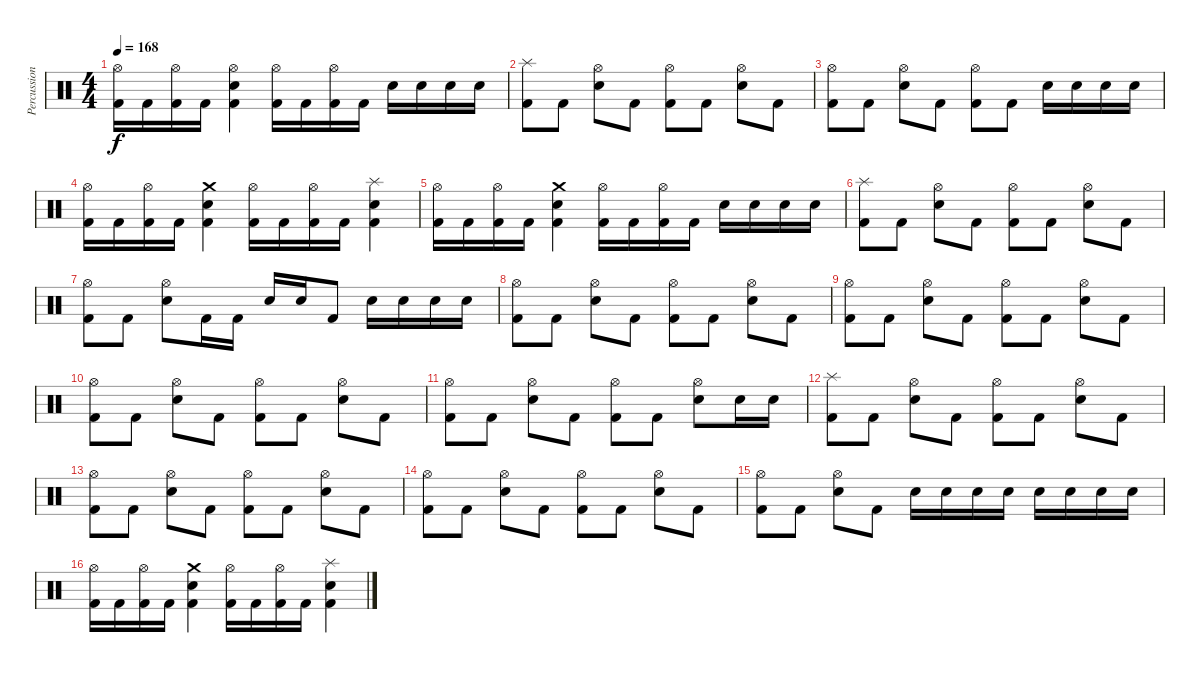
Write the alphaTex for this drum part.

\track ("Percussion" "Percussion") {instrument percussion}
\staff {score}
\articulation defaults
\ts (4 4)
\tempo 168
\clef neutral
\ks c
("Hi-Hat (open)" "Kick (hit) 2").16{dy f} "Kick (hit) 2".16 ("Hi-Hat (open)" "Kick (hit) 2").16 "Kick (hit) 2".16 ("Hi-Hat (open)" "Snare (hit) 2" "Kick (hit) 2").4 ("Hi-Hat (open)" "Kick (hit) 2").16 "Kick (hit) 2".16 ("Hi-Hat (open)" "Kick (hit) 2").16 "Kick (hit) 2".16 "Snare (hit) 2".16 "Snare (hit) 2".16 "Snare (hit) 2".16 "Snare (hit) 2".16 |
("Splash (hit)" "Kick (hit) 2").8 "Kick (hit) 2".8 ("Hi-Hat (open)" "Snare (hit) 2").8 "Kick (hit) 2".8 ("Hi-Hat (open)" "Kick (hit) 2").8 "Kick (hit) 2".8 ("Hi-Hat (open)" "Snare (hit) 2").8 "Kick (hit) 2".8 |
("Hi-Hat (open)" "Kick (hit) 2").8 "Kick (hit) 2".8 ("Hi-Hat (open)" "Snare (hit) 2").8 "Kick (hit) 2".8 ("Hi-Hat (open)" "Kick (hit) 2").8 "Kick (hit) 2".8 "Snare (hit) 2".16 "Snare (hit) 2".16 "Snare (hit) 2".16 "Snare (hit) 2".16 |
("Hi-Hat (open)" "Kick (hit) 2").16 "Kick (hit) 2".16 ("Hi-Hat (open)" "Kick (hit) 2").16 "Kick (hit) 2".16 ("Crash medium (hit)" "Snare (hit) 2" "Kick (hit) 2").4 ("Hi-Hat (open)" "Kick (hit) 2").16 "Kick (hit) 2".16 ("Hi-Hat (open)" "Kick (hit) 2").16 "Kick (hit) 2".16 ("Splash (hit)" "Snare (hit) 2" "Kick (hit) 2").4 |
("Hi-Hat (open)" "Kick (hit) 2").16 "Kick (hit) 2".16 ("Hi-Hat (open)" "Kick (hit) 2").16 "Kick (hit) 2".16 ("Crash medium (hit)" "Snare (hit) 2" "Kick (hit) 2").4 ("Hi-Hat (open)" "Kick (hit) 2").16 "Kick (hit) 2".16 ("Hi-Hat (open)" "Kick (hit) 2").16 "Kick (hit) 2".16 "Snare (hit) 2".16 "Snare (hit) 2".16 "Snare (hit) 2".16 "Snare (hit) 2".16 |
("Splash (hit)" "Kick (hit) 2").8 "Kick (hit) 2".8 ("Hi-Hat (open)" "Snare (hit) 2").8 "Kick (hit) 2".8 ("Hi-Hat (open)" "Kick (hit) 2").8 "Kick (hit) 2".8 ("Hi-Hat (open)" "Snare (hit) 2").8 "Kick (hit) 2".8 |
("Hi-Hat (open)" "Kick (hit) 2").8 "Kick (hit) 2".8 ("Hi-Hat (open)" "Snare (hit) 2").8 "Kick (hit) 2".16 "Kick (hit) 2".16 "Snare (hit) 2".16 "Snare (hit) 2".16 "Kick (hit) 2".8 "Snare (hit) 2".16 "Snare (hit) 2".16 "Snare (hit) 2".16 "Snare (hit) 2".16 |
("Hi-Hat (open)" "Kick (hit) 2").8 "Kick (hit) 2".8 ("Hi-Hat (open)" "Snare (hit) 2").8 "Kick (hit) 2".8 ("Hi-Hat (open)" "Kick (hit) 2").8 "Kick (hit) 2".8 ("Hi-Hat (open)" "Snare (hit) 2").8 "Kick (hit) 2".8 |
("Hi-Hat (open)" "Kick (hit) 2").8 "Kick (hit) 2".8 ("Hi-Hat (open)" "Snare (hit) 2").8 "Kick (hit) 2".8 ("Hi-Hat (open)" "Kick (hit) 2").8 "Kick (hit) 2".8 ("Hi-Hat (open)" "Snare (hit) 2").8 "Kick (hit) 2".8 |
("Hi-Hat (open)" "Kick (hit) 2").8 "Kick (hit) 2".8 ("Hi-Hat (open)" "Snare (hit) 2").8 "Kick (hit) 2".8 ("Hi-Hat (open)" "Kick (hit) 2").8 "Kick (hit) 2".8 ("Hi-Hat (open)" "Snare (hit) 2").8 "Kick (hit) 2".8 |
("Hi-Hat (open)" "Kick (hit) 2").8 "Kick (hit) 2".8 ("Hi-Hat (open)" "Snare (hit) 2").8 "Kick (hit) 2".8 ("Hi-Hat (open)" "Kick (hit) 2").8 "Kick (hit) 2".8 ("Hi-Hat (open)" "Snare (hit) 2").8 "Snare (hit) 2".16 "Snare (hit) 2".16 |
("Splash (hit)" "Kick (hit) 2").8 "Kick (hit) 2".8 ("Hi-Hat (open)" "Snare (hit) 2").8 "Kick (hit) 2".8 ("Hi-Hat (open)" "Kick (hit) 2").8 "Kick (hit) 2".8 ("Hi-Hat (open)" "Snare (hit) 2").8 "Kick (hit) 2".8 |
("Hi-Hat (open)" "Kick (hit) 2").8 "Kick (hit) 2".8 ("Hi-Hat (open)" "Snare (hit) 2").8 "Kick (hit) 2".8 ("Hi-Hat (open)" "Kick (hit) 2").8 "Kick (hit) 2".8 ("Hi-Hat (open)" "Snare (hit) 2").8 "Kick (hit) 2".8 |
("Hi-Hat (open)" "Kick (hit) 2").8 "Kick (hit) 2".8 ("Hi-Hat (open)" "Snare (hit) 2").8 "Kick (hit) 2".8 ("Hi-Hat (open)" "Kick (hit) 2").8 "Kick (hit) 2".8 ("Hi-Hat (open)" "Snare (hit) 2").8 "Kick (hit) 2".8 |
("Hi-Hat (open)" "Kick (hit) 2").8 "Kick (hit) 2".8 ("Hi-Hat (open)" "Snare (hit) 2").8 "Kick (hit) 2".8 "Snare (hit) 2".16 "Snare (hit) 2".16 "Snare (hit) 2".16 "Snare (hit) 2".16 "Snare (hit) 2".16 "Snare (hit) 2".16 "Snare (hit) 2".16 "Snare (hit) 2".16 |
("Hi-Hat (open)" "Kick (hit) 2").16 "Kick (hit) 2".16 ("Hi-Hat (open)" "Kick (hit) 2").16 "Kick (hit) 2".16 ("Crash medium (hit)" "Snare (hit) 2" "Kick (hit) 2").4 ("Hi-Hat (open)" "Kick (hit) 2").16 "Kick (hit) 2".16 ("Hi-Hat (open)" "Kick (hit) 2").16 "Kick (hit) 2".16 ("Splash (hit)" "Snare (hit) 2" "Kick (hit) 2").4
